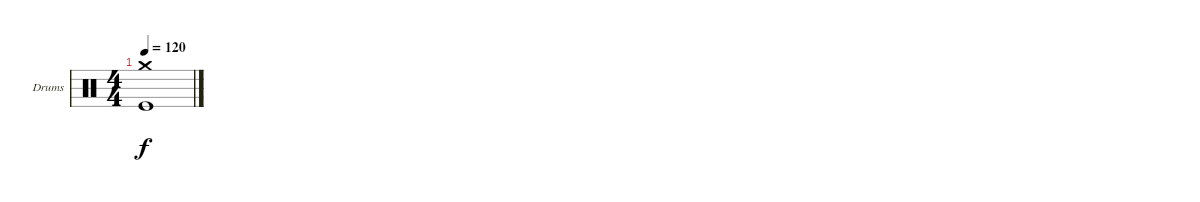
\defaultSystemsLayout 4
\bracketExtendMode groupsimilarinstruments
\firstSystemTrackNameOrientation horizontal
\otherSystemsTrackNameOrientation horizontal
\track ("Jerinx" "Drums") {instrument percussion}
\staff {score}
\articulation defaults
\ts (4 4)
\tempo 120
\clef neutral
\ks c
("Crash medium (hit)" "Kick (hit)").1{dy f}
